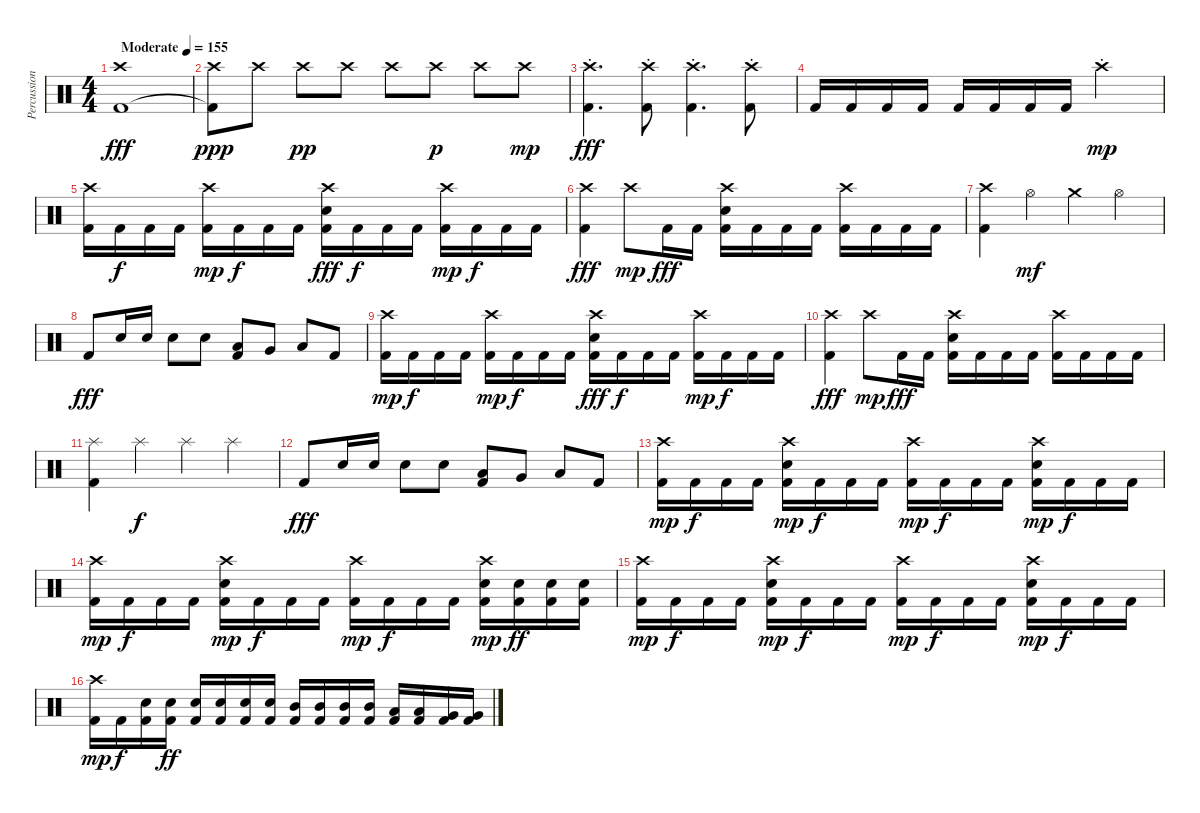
\track ("Percussion" "Percussion") {instrument percussion}
\staff {score}
\articulation defaults
\ts (4 4)
\tempo (155 "Moderate")
\clef neutral
\ks c
("Crash high (hit)" "Kick (hit) 2").1{dy fff} |
("Crash high (hit)" "Kick (hit) 2"{t}).8{dy ppp} "Crash high (hit)".8 "Crash high (hit)".8{dy pp} "Crash high (hit)".8 "Crash high (hit)".8 "Crash high (hit)".8{dy p} "Crash high (hit)".8 "Crash high (hit)".8{dy mp} |
("Crash high (hit)"{st} "Kick (hit) 2").4{d dy fff} ("Crash high (hit)"{st} "Kick (hit) 2").8 ("Crash high (hit)"{st} "Kick (hit) 2").4{d} ("Crash high (hit)"{st} "Kick (hit) 2").8 |
"Kick (hit) 2".16 "Kick (hit) 2".16 "Kick (hit) 2".16 "Kick (hit) 2".16 "Kick (hit) 2".16 "Kick (hit) 2".16 "Kick (hit) 2".16 "Kick (hit) 2".16 "Crash high (hit)"{st}.2{dy mp} |
("Crash high (hit)" "Kick (hit) 2").16 "Kick (hit) 2".16{dy f} "Kick (hit) 2".16 "Kick (hit) 2".16 ("Crash high (hit)" "Kick (hit) 2").16{dy mp} "Kick (hit) 2".16{dy f} "Kick (hit) 2".16 "Kick (hit) 2".16 ("Crash high (hit)" "Electric Snare (hit)" "Kick (hit) 2").16{dy fff} "Kick (hit) 2".16{dy f} "Kick (hit) 2".16 "Kick (hit) 2".16 ("Crash high (hit)" "Kick (hit) 2").16{dy mp} "Kick (hit) 2".16{dy f} "Kick (hit) 2".16 "Kick (hit) 2".16 |
("Crash high (hit)" "Kick (hit) 2").4{dy fff} "Crash high (hit)".8{dy mp} "Kick (hit) 2".16{dy fff} "Kick (hit) 2".16 ("Crash high (hit)" "Electric Snare (hit)" "Kick (hit) 2").16 "Kick (hit) 2".16 "Kick (hit) 2".16 "Kick (hit) 2".16 ("Crash high (hit)" "Kick (hit) 2").16 "Kick (hit) 2".16 "Kick (hit) 2".16 "Kick (hit) 2".16 |
("Crash high (hit)" "Kick (hit) 2").4 "Hi-Hat (open)".4{dy mf} "Crash medium (hit)".4 "Hi-Hat (open)".4 |
"Kick (hit) 2".8{dy fff} "Electric Snare (hit)".16 "Electric Snare (hit)".16 "Electric Snare (hit)".8 "Electric Snare (hit)".8 ("Low Tom (hit)" "Kick (hit) 2").8 "Very Low Tom (hit)".8 "Low Floor Tom (hit)".8 "Kick (hit) 2".8 |
("Crash high (hit)" "Kick (hit) 2").16{dy mp} "Kick (hit) 2".16{dy f} "Kick (hit) 2".16 "Kick (hit) 2".16 ("Crash high (hit)" "Kick (hit) 2").16{dy mp} "Kick (hit) 2".16{dy f} "Kick (hit) 2".16 "Kick (hit) 2".16 ("Crash high (hit)" "Electric Snare (hit)" "Kick (hit) 2").16{dy fff} "Kick (hit) 2".16{dy f} "Kick (hit) 2".16 "Kick (hit) 2".16 ("Crash high (hit)" "Kick (hit) 2").16{dy mp} "Kick (hit) 2".16{dy f} "Kick (hit) 2".16 "Kick (hit) 2".16 |
("Crash high (hit)" "Kick (hit) 2").4{dy fff} "Crash high (hit)".8{dy mp} "Kick (hit) 2".16{dy fff} "Kick (hit) 2".16 ("Crash high (hit)" "Electric Snare (hit)" "Kick (hit) 2").16 "Kick (hit) 2".16 "Kick (hit) 2".16 "Kick (hit) 2".16 ("Crash high (hit)" "Kick (hit) 2").16 "Kick (hit) 2".16 "Kick (hit) 2".16 "Kick (hit) 2".16 |
("Splash (hit)" "Kick (hit) 2").4 "Splash (hit)".4{dy f} "Splash (hit)".4 "Splash (hit)".4 |
"Kick (hit) 2".8{dy fff} "Electric Snare (hit)".16 "Electric Snare (hit)".16 "Electric Snare (hit)".8 "Electric Snare (hit)".8 ("Low Tom (hit)" "Kick (hit) 2").8 "Very Low Tom (hit)".8 "Low Floor Tom (hit)".8 "Kick (hit) 2".8 |
("Crash high (hit)" "Kick (hit) 2").16{dy mp} "Kick (hit) 2".16{dy f} "Kick (hit) 2".16 "Kick (hit) 2".16 ("Crash high (hit)" "Electric Snare (hit)" "Kick (hit) 2").16{dy mp} "Kick (hit) 2".16{dy f} "Kick (hit) 2".16 "Kick (hit) 2".16 ("Crash high (hit)" "Kick (hit) 2").16{dy mp} "Kick (hit) 2".16{dy f} "Kick (hit) 2".16 "Kick (hit) 2".16 ("Crash high (hit)" "Electric Snare (hit)" "Kick (hit) 2").16{dy mp} "Kick (hit) 2".16{dy f} "Kick (hit) 2".16 "Kick (hit) 2".16 |
("Crash high (hit)" "Kick (hit) 2").16{dy mp} "Kick (hit) 2".16{dy f} "Kick (hit) 2".16 "Kick (hit) 2".16 ("Crash high (hit)" "Electric Snare (hit)" "Kick (hit) 2").16{dy mp} "Kick (hit) 2".16{dy f} "Kick (hit) 2".16 "Kick (hit) 2".16 ("Crash high (hit)" "Kick (hit) 2").16{dy mp} "Kick (hit) 2".16{dy f} "Kick (hit) 2".16 "Kick (hit) 2".16 ("Crash high (hit)" "Electric Snare (hit)" "Kick (hit) 2").16{dy mp} ("Electric Snare (hit)" "Kick (hit) 2").16{dy ff} ("Electric Snare (hit)" "Kick (hit) 2").16 ("Electric Snare (hit)" "Kick (hit) 2").16 |
("Crash high (hit)" "Kick (hit) 2").16{dy mp} "Kick (hit) 2".16{dy f} "Kick (hit) 2".16 "Kick (hit) 2".16 ("Crash high (hit)" "Electric Snare (hit)" "Kick (hit) 2").16{dy mp} "Kick (hit) 2".16{dy f} "Kick (hit) 2".16 "Kick (hit) 2".16 ("Crash high (hit)" "Kick (hit) 2").16{dy mp} "Kick (hit) 2".16{dy f} "Kick (hit) 2".16 "Kick (hit) 2".16 ("Crash high (hit)" "Electric Snare (hit)" "Kick (hit) 2").16{dy mp} "Kick (hit) 2".16{dy f} "Kick (hit) 2".16 "Kick (hit) 2".16 |
("Crash high (hit)" "Kick (hit) 2").16{dy mp} "Kick (hit) 2".16{dy f} ("Electric Snare (hit)" "Kick (hit) 2").16 ("Electric Snare (hit)" "Kick (hit) 2").16{dy ff} ("Electric Snare (hit)" "Kick (hit) 2").16 ("Electric Snare (hit)" "Kick (hit) 2").16 ("Electric Snare (hit)" "Kick (hit) 2").16 ("Electric Snare (hit)" "Kick (hit) 2").16 ("Mid Tom (hit)" "Kick (hit) 2").16 ("Mid Tom (hit)" "Kick (hit) 2").16 ("Mid Tom (hit)" "Kick (hit) 2").16 ("Mid Tom (hit)" "Kick (hit) 2").16 ("Low Tom (hit)" "Kick (hit) 2").16 ("Low Tom (hit)" "Kick (hit) 2").16 ("Very Low Tom (hit)" "Kick (hit) 2").16 ("Very Low Tom (hit)" "Kick (hit) 2").16
